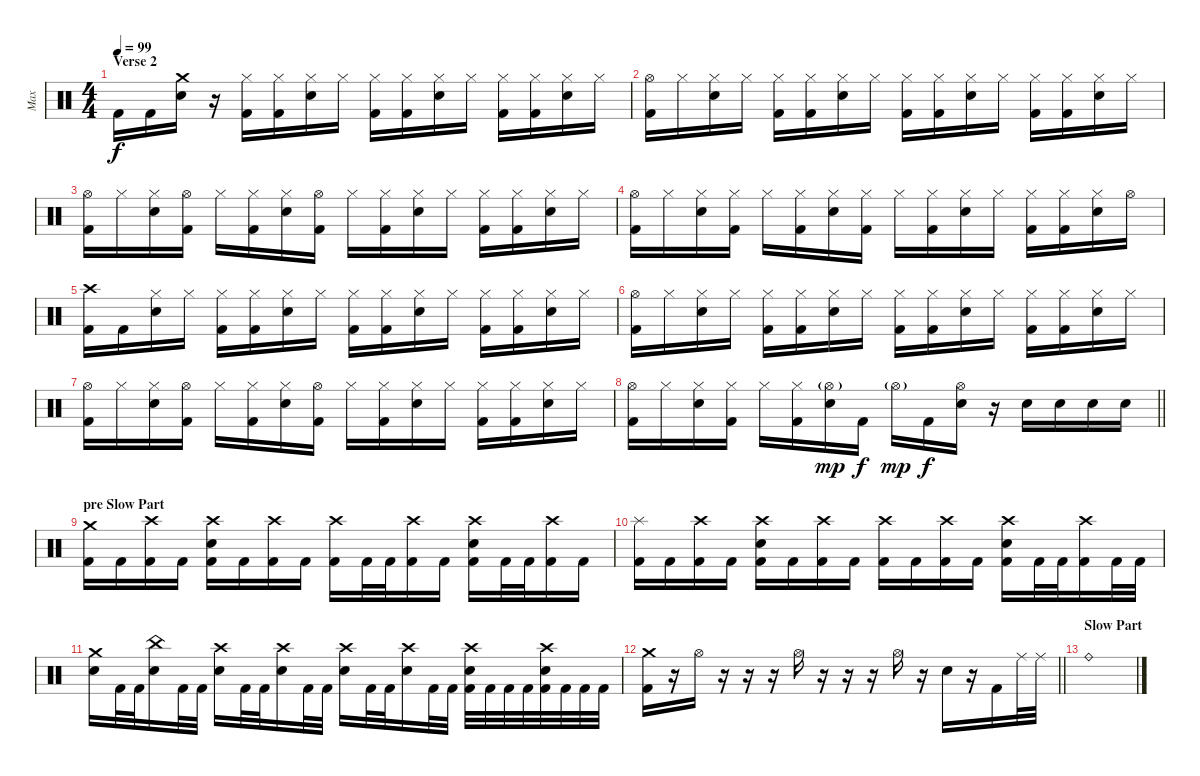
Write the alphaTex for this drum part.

\track ("Max" "Max") {instrument percussion}
\staff {score}
\articulation defaults
\ts (4 4)
\section ("" "Verse 2")
\tempo 99
\clef neutral
\ks c "Kick (hit) 2".16{dy f} "Kick (hit) 2".16
("Crash medium (hit)" "Electric Snare (hit)").16 r.16 ("Hi-Hat (closed)" "Kick (hit) 2").16 ("Hi-Hat (closed)" "Kick (hit) 2").16 ("Hi-Hat (closed)" "Electric Snare (hit)").16 "Hi-Hat (closed)".16 ("Hi-Hat (closed)" "Kick (hit) 2").16 ("Hi-Hat (closed)" "Kick (hit) 2").16 ("Hi-Hat (closed)" "Electric Snare (hit)").16 "Hi-Hat (closed)".16 ("Hi-Hat (closed)" "Kick (hit) 2").16 ("Hi-Hat (closed)" "Kick (hit) 2").16 ("Hi-Hat (closed)" "Electric Snare (hit)").16 "Hi-Hat (closed)".16 |
("Hi-Hat (open)" "Kick (hit) 2").16 "Hi-Hat (closed)".16 ("Hi-Hat (closed)" "Electric Snare (hit)").16 "Hi-Hat (closed)".16 ("Hi-Hat (closed)" "Kick (hit) 2").16 ("Hi-Hat (closed)" "Kick (hit) 2").16 ("Hi-Hat (closed)" "Electric Snare (hit)").16 "Hi-Hat (closed)".16 ("Hi-Hat (closed)" "Kick (hit) 2").16 ("Hi-Hat (closed)" "Kick (hit) 2").16 ("Hi-Hat (closed)" "Electric Snare (hit)").16 "Hi-Hat (closed)".16 ("Hi-Hat (closed)" "Kick (hit) 2").16 ("Hi-Hat (closed)" "Kick (hit) 2").16 ("Hi-Hat (closed)" "Electric Snare (hit)").16 "Hi-Hat (closed)".16 |
("Hi-Hat (open)" "Kick (hit) 2").16 "Hi-Hat (closed)".16 ("Hi-Hat (closed)" "Electric Snare (hit)").16 ("Hi-Hat (open)" "Kick (hit) 2").16 "Hi-Hat (closed)".16 ("Hi-Hat (closed)" "Kick (hit) 2").16 ("Hi-Hat (closed)" "Electric Snare (hit)").16 ("Hi-Hat (open)" "Kick (hit) 2").16 "Hi-Hat (closed)".16 ("Hi-Hat (closed)" "Kick (hit) 2").16 ("Hi-Hat (closed)" "Electric Snare (hit)").16 "Hi-Hat (closed)".16 ("Hi-Hat (closed)" "Kick (hit) 2").16 ("Hi-Hat (closed)" "Kick (hit) 2").16 ("Hi-Hat (closed)" "Electric Snare (hit)").16 "Hi-Hat (closed)".16 |
("Hi-Hat (open)" "Kick (hit) 2").16 "Hi-Hat (closed)".16 ("Hi-Hat (closed)" "Electric Snare (hit)").16 ("Hi-Hat (closed)" "Kick (hit) 2").16 "Hi-Hat (closed)".16 ("Hi-Hat (closed)" "Kick (hit) 2").16 ("Hi-Hat (closed)" "Electric Snare (hit)").16 ("Hi-Hat (closed)" "Kick (hit) 2").16 "Hi-Hat (closed)".16 ("Hi-Hat (closed)" "Kick (hit) 2").16 ("Hi-Hat (closed)" "Electric Snare (hit)").16 "Hi-Hat (closed)".16 ("Hi-Hat (closed)" "Kick (hit) 2").16 ("Hi-Hat (closed)" "Kick (hit) 2").16 ("Hi-Hat (closed)" "Electric Snare (hit)").16 "Hi-Hat (open)".16 |
("Crash high (hit)" "Kick (hit) 2").16 "Kick (hit) 2".16 ("Hi-Hat (closed)" "Electric Snare (hit)").16 "Hi-Hat (closed)".16 ("Hi-Hat (closed)" "Kick (hit) 2").16 ("Hi-Hat (closed)" "Kick (hit) 2").16 ("Hi-Hat (closed)" "Electric Snare (hit)").16 "Hi-Hat (closed)".16 ("Hi-Hat (closed)" "Kick (hit) 2").16 ("Hi-Hat (closed)" "Kick (hit) 2").16 ("Hi-Hat (closed)" "Electric Snare (hit)").16 "Hi-Hat (closed)".16 ("Hi-Hat (closed)" "Kick (hit) 2").16 ("Hi-Hat (closed)" "Kick (hit) 2").16 ("Hi-Hat (closed)" "Electric Snare (hit)").16 "Hi-Hat (closed)".16 |
("Hi-Hat (open)" "Kick (hit) 2").16 "Hi-Hat (closed)".16 ("Hi-Hat (closed)" "Electric Snare (hit)").16 "Hi-Hat (closed)".16 ("Hi-Hat (closed)" "Kick (hit) 2").16 ("Hi-Hat (closed)" "Kick (hit) 2").16 ("Hi-Hat (closed)" "Electric Snare (hit)").16 "Hi-Hat (closed)".16 ("Hi-Hat (closed)" "Kick (hit) 2").16 ("Hi-Hat (closed)" "Kick (hit) 2").16 ("Hi-Hat (closed)" "Electric Snare (hit)").16 "Hi-Hat (closed)".16 ("Hi-Hat (closed)" "Kick (hit) 2").16 ("Hi-Hat (closed)" "Kick (hit) 2").16 ("Hi-Hat (closed)" "Electric Snare (hit)").16 "Hi-Hat (closed)".16 |
("Hi-Hat (open)" "Kick (hit) 2").16 "Hi-Hat (closed)".16 ("Hi-Hat (closed)" "Electric Snare (hit)").16 ("Hi-Hat (open)" "Kick (hit) 2").16 "Hi-Hat (closed)".16 ("Hi-Hat (closed)" "Kick (hit) 2").16 ("Hi-Hat (closed)" "Electric Snare (hit)").16 ("Hi-Hat (open)" "Kick (hit) 2").16 "Hi-Hat (closed)".16 ("Hi-Hat (closed)" "Kick (hit) 2").16 ("Hi-Hat (closed)" "Electric Snare (hit)").16 "Hi-Hat (closed)".16 ("Hi-Hat (closed)" "Kick (hit) 2").16 ("Hi-Hat (closed)" "Kick (hit) 2").16 ("Hi-Hat (closed)" "Electric Snare (hit)").16 "Hi-Hat (closed)".16 |
\barLineRight lightlight
("Hi-Hat (open)" "Kick (hit) 2").16 "Hi-Hat (closed)".16 ("Hi-Hat (closed)" "Electric Snare (hit)").16 ("Hi-Hat (closed)" "Kick (hit) 2").16 "Hi-Hat (closed)".16 ("Hi-Hat (closed)" "Kick (hit) 2").16 ("Hi-Hat (open)"{g} "Electric Snare (hit)").16{dy mp} "Kick (hit) 2".16{dy f} "Hi-Hat (open)"{g}.16{dy mp} "Kick (hit) 2".16{dy f} ("Hi-Hat (open)" "Electric Snare (hit)").16 r.16 "Electric Snare (hit)".16 "Electric Snare (hit)".16 "Electric Snare (hit)".16 "Electric Snare (hit)".16 |
\section ("" "pre Slow Part")
("Crash medium (hit)" "Kick (hit) 2").16 "Kick (hit) 2".16 ("Crash high (hit)" "Kick (hit) 2").16 "Kick (hit) 2".16 ("Crash high (hit)" "Electric Snare (hit)" "Kick (hit) 2").16 "Kick (hit) 2".16 ("Crash high (hit)" "Kick (hit) 2").16 "Kick (hit) 2".16 ("Crash high (hit)" "Kick (hit) 2").16 "Kick (hit) 2".32 "Kick (hit) 2".32 ("Crash high (hit)" "Kick (hit) 2").16 "Kick (hit) 2".16 ("Crash high (hit)" "Electric Snare (hit)" "Kick (hit) 2").16 "Kick (hit) 2".32 "Kick (hit) 2".32 ("Crash high (hit)" "Kick (hit) 2").16 "Kick (hit) 2".16 |
("Splash (hit)" "Kick (hit) 2").16 "Kick (hit) 2".16 ("Crash high (hit)" "Kick (hit) 2").16 "Kick (hit) 2".16 ("Crash high (hit)" "Electric Snare (hit)" "Kick (hit) 2").16 "Kick (hit) 2".16 ("Crash high (hit)" "Kick (hit) 2").16 "Kick (hit) 2".16 ("Crash high (hit)" "Kick (hit) 2").16 "Kick (hit) 2".16 ("Crash high (hit)" "Kick (hit) 2").16 "Kick (hit) 2".16 ("Crash high (hit)" "Electric Snare (hit)" "Kick (hit) 2").16 "Kick (hit) 2".32 "Kick (hit) 2".32 ("Crash high (hit)" "Kick (hit) 2").16 "Kick (hit) 2".32 "Kick (hit) 2".32 |
("Crash medium (hit)" "Electric Snare (hit)").16 "Kick (hit) 2".32 "Kick (hit) 2".32 ("China (hit)" "Electric Snare (hit)").16 "Kick (hit) 2".32 "Kick (hit) 2".32 ("Crash high (hit)" "Electric Snare (hit)").16 "Kick (hit) 2".32 "Kick (hit) 2".32 ("Crash high (hit)" "Electric Snare (hit)").16 "Kick (hit) 2".32 "Kick (hit) 2".32 ("Crash high (hit)" "Electric Snare (hit)").16 "Kick (hit) 2".32 "Kick (hit) 2".32 ("Crash high (hit)" "Electric Snare (hit)").16 "Kick (hit) 2".32 "Kick (hit) 2".32 ("Crash high (hit)" "Electric Snare (hit)" "Kick (hit) 2").32 "Kick (hit) 2".32 "Kick (hit) 2".32 "Kick (hit) 2".32 ("Crash high (hit)" "Electric Snare (hit)" "Kick (hit) 2").32 "Kick (hit) 2".32 "Kick (hit) 2".32 "Kick (hit) 2".32 |
\barLineRight lightlight
("Crash medium (hit)" "Kick (hit) 2").16 r.16 "Hi-Hat (open)".16 r.16 r.16 r.16 "Hi-Hat (open)".16 r.16 r.16 r.16 "Hi-Hat (open)".16 r.16 "Electric Snare (hit)".16 r.16 "Kick (hit) 2".16 "Ride (middle)".32 "Ride (middle)".32 |
\section ("" "Slow Part")
"Ride (bell)".1
